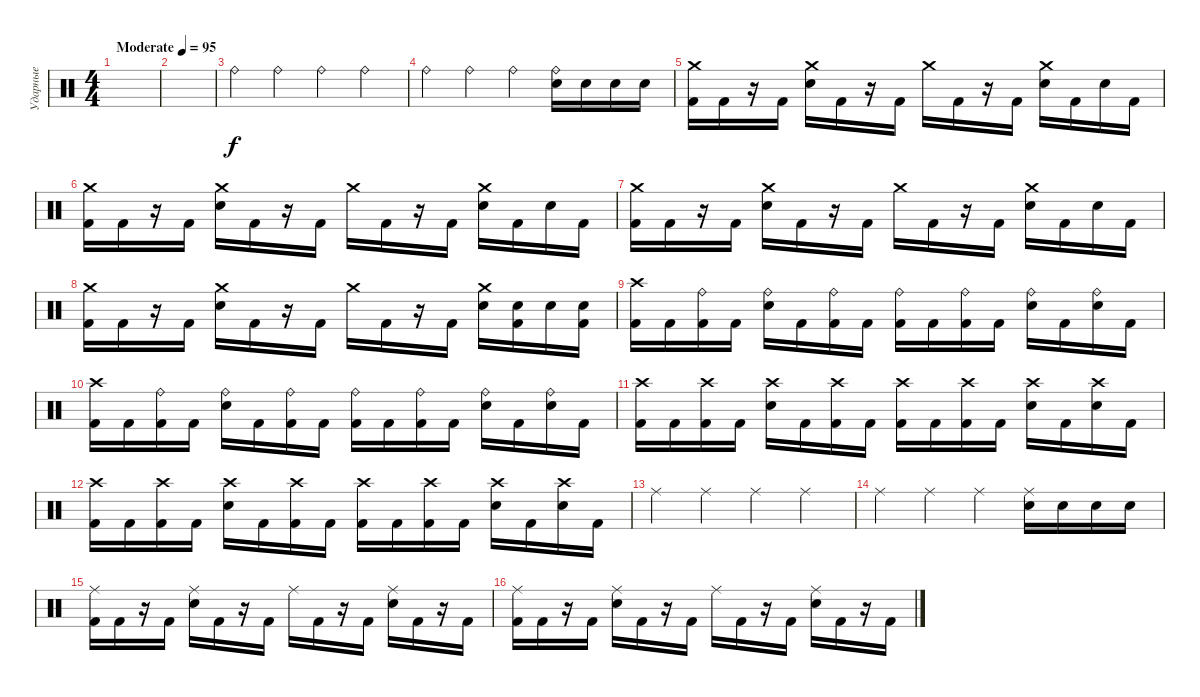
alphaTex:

\track ("Ударные" "Ударные") {instrument percussion}
\staff {score}
\articulation defaults
\ts (4 4)
\tempo (95 "Moderate")
\clef neutral
\ks c
|
|
"Ride (bell)".4 "Ride (bell)".4 "Ride (bell)".4 "Ride (bell)".4 |
"Ride (bell)".4 "Ride (bell)".4 "Ride (bell)".4 ("Ride (bell)" "Electric Snare (hit)").16 "Electric Snare (hit)".16 "Electric Snare (hit)".16 "Electric Snare (hit)".16 |
("Crash medium (hit)" "Kick (hit) 2").16 "Kick (hit) 2".16 r.16 "Kick (hit) 2".16 ("Crash medium (hit)" "Electric Snare (hit)").16 "Kick (hit) 2".16 r.16 "Kick (hit) 2".16 "Crash medium (hit)".16 "Kick (hit) 2".16 r.16 "Kick (hit) 2".16 ("Crash medium (hit)" "Electric Snare (hit)").16 "Kick (hit) 2".16 "Electric Snare (hit)".16 "Kick (hit) 2".16 |
("Crash medium (hit)" "Kick (hit) 2").16 "Kick (hit) 2".16 r.16 "Kick (hit) 2".16 ("Crash medium (hit)" "Electric Snare (hit)").16 "Kick (hit) 2".16 r.16 "Kick (hit) 2".16 "Crash medium (hit)".16 "Kick (hit) 2".16 r.16 "Kick (hit) 2".16 ("Crash medium (hit)" "Electric Snare (hit)").16 "Kick (hit) 2".16 "Electric Snare (hit)".16 "Kick (hit) 2".16 |
("Crash medium (hit)" "Kick (hit) 2").16 "Kick (hit) 2".16 r.16 "Kick (hit) 2".16 ("Crash medium (hit)" "Electric Snare (hit)").16 "Kick (hit) 2".16 r.16 "Kick (hit) 2".16 "Crash medium (hit)".16 "Kick (hit) 2".16 r.16 "Kick (hit) 2".16 ("Crash medium (hit)" "Electric Snare (hit)").16 "Kick (hit) 2".16 "Electric Snare (hit)".16 "Kick (hit) 2".16 |
("Crash medium (hit)" "Kick (hit) 2").16 "Kick (hit) 2".16 r.16 "Kick (hit) 2".16 ("Crash medium (hit)" "Electric Snare (hit)").16 "Kick (hit) 2".16 r.16 "Kick (hit) 2".16 "Crash medium (hit)".16 "Kick (hit) 2".16 r.16 "Kick (hit) 2".16 ("Crash medium (hit)" "Electric Snare (hit)").16 ("Electric Snare (hit)" "Kick (hit) 2").16 "Electric Snare (hit)".16 ("Electric Snare (hit)" "Kick (hit) 2").16 |
("Crash high (hit)" "Kick (hit) 2").16 "Kick (hit) 2".16 ("Ride (bell)" "Kick (hit) 2").16 "Kick (hit) 2".16 ("Ride (bell)" "Electric Snare (hit)").16 "Kick (hit) 2".16 ("Ride (bell)" "Kick (hit) 2").16 "Kick (hit) 2".16 ("Ride (bell)" "Kick (hit) 2").16 "Kick (hit) 2".16 ("Ride (bell)" "Kick (hit) 2").16 "Kick (hit) 2".16 ("Ride (bell)" "Electric Snare (hit)").16 "Kick (hit) 2".16 ("Ride (bell)" "Electric Snare (hit)").16 "Kick (hit) 2".16 |
("Crash high (hit)" "Kick (hit) 2").16 "Kick (hit) 2".16 ("Ride (bell)" "Kick (hit) 2").16 "Kick (hit) 2".16 ("Ride (bell)" "Electric Snare (hit)").16 "Kick (hit) 2".16 ("Ride (bell)" "Kick (hit) 2").16 "Kick (hit) 2".16 ("Ride (bell)" "Kick (hit) 2").16 "Kick (hit) 2".16 ("Ride (bell)" "Kick (hit) 2").16 "Kick (hit) 2".16 ("Ride (bell)" "Electric Snare (hit)").16 "Kick (hit) 2".16 ("Ride (bell)" "Electric Snare (hit)").16 "Kick (hit) 2".16 |
("Crash high (hit)" "Kick (hit) 2").16 "Kick (hit) 2".16 ("Crash high (hit)" "Kick (hit) 2").16 "Kick (hit) 2".16 ("Crash high (hit)" "Electric Snare (hit)").16 "Kick (hit) 2".16 ("Crash high (hit)" "Kick (hit) 2").16 "Kick (hit) 2".16 ("Crash high (hit)" "Kick (hit) 2").16 "Kick (hit) 2".16 ("Crash high (hit)" "Kick (hit) 2").16 "Kick (hit) 2".16 ("Crash high (hit)" "Electric Snare (hit)").16 "Kick (hit) 2".16 ("Crash high (hit)" "Electric Snare (hit)").16 "Kick (hit) 2".16 |
("Crash high (hit)" "Kick (hit) 2").16 "Kick (hit) 2".16 ("Crash high (hit)" "Kick (hit) 2").16 "Kick (hit) 2".16 ("Crash high (hit)" "Electric Snare (hit)").16 "Kick (hit) 2".16 ("Crash high (hit)" "Kick (hit) 2").16 "Kick (hit) 2".16 ("Crash high (hit)" "Kick (hit) 2").16 "Kick (hit) 2".16 ("Crash high (hit)" "Kick (hit) 2").16 "Kick (hit) 2".16 ("Crash high (hit)" "Electric Snare (hit)").16 "Kick (hit) 2".16 ("Crash high (hit)" "Electric Snare (hit)").16 "Kick (hit) 2".16 |
"Ride (middle)".4 "Ride (middle)".4 "Ride (middle)".4 "Ride (middle)".4 |
"Ride (middle)".4 "Ride (middle)".4 "Ride (middle)".4 ("Ride (middle)" "Electric Snare (hit)").16 "Electric Snare (hit)".16 "Electric Snare (hit)".16 "Electric Snare (hit)".16 |
("Ride (middle)" "Kick (hit) 2").16 "Kick (hit) 2".16 r.16 "Kick (hit) 2".16 ("Ride (middle)" "Electric Snare (hit)").16 "Kick (hit) 2".16 r.16 "Kick (hit) 2".16 "Ride (middle)".16 "Kick (hit) 2".16 r.16 "Kick (hit) 2".16 ("Ride (middle)" "Electric Snare (hit)").16 "Kick (hit) 2".16 r.16 "Kick (hit) 2".16 |
("Ride (middle)" "Kick (hit) 2").16 "Kick (hit) 2".16 r.16 "Kick (hit) 2".16 ("Ride (middle)" "Electric Snare (hit)").16 "Kick (hit) 2".16 r.16 "Kick (hit) 2".16 "Ride (middle)".16 "Kick (hit) 2".16 r.16 "Kick (hit) 2".16 ("Ride (middle)" "Electric Snare (hit)").16 "Kick (hit) 2".16 r.16 "Kick (hit) 2".16
